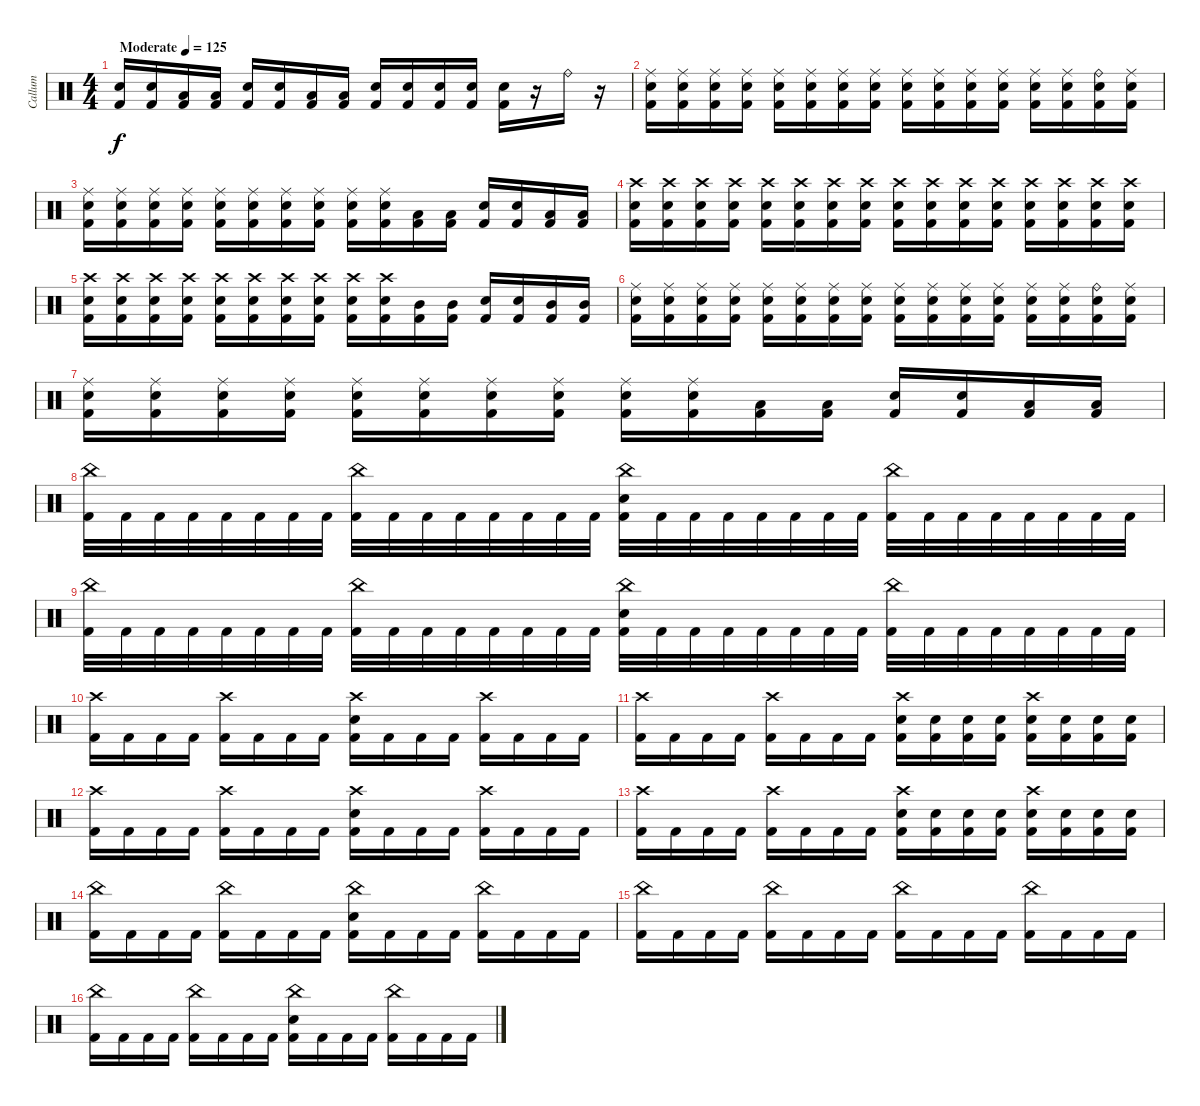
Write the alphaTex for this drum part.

\track ("Callum" "Callum") {instrument percussion}
\staff {score}
\articulation defaults
\ts (4 4)
\tempo (125 "Moderate")
\clef neutral
\ks c
("Electric Snare (hit)" "Kick (hit) 2").16{dy f} ("Electric Snare (hit)" "Kick (hit) 2").16 ("Low Tom (hit)" "Kick (hit) 2").16 ("Low Tom (hit)" "Kick (hit) 2").16 ("Electric Snare (hit)" "Kick (hit) 2").16 ("Electric Snare (hit)" "Kick (hit) 2").16 ("Low Tom (hit)" "Kick (hit) 2").16 ("Low Tom (hit)" "Kick (hit) 2").16 ("Electric Snare (hit)" "Kick (hit) 2").16 ("Electric Snare (hit)" "Kick (hit) 2").16 ("Electric Snare (hit)" "Kick (hit) 2").16 ("Electric Snare (hit)" "Kick (hit) 2").16 ("Electric Snare (hit)" "Kick (hit) 2").16 r.16 "Ride (bell)".16 r.16 |
("Ride (middle)" "Electric Snare (hit)" "Kick (hit) 2").16 ("Ride (middle)" "Electric Snare (hit)" "Kick (hit) 2").16 ("Ride (middle)" "Electric Snare (hit)" "Kick (hit) 2").16 ("Ride (middle)" "Electric Snare (hit)" "Kick (hit) 2").16 ("Ride (middle)" "Electric Snare (hit)" "Kick (hit) 2").16 ("Ride (middle)" "Electric Snare (hit)" "Kick (hit) 2").16 ("Ride (middle)" "Electric Snare (hit)" "Kick (hit) 2").16 ("Ride (middle)" "Electric Snare (hit)" "Kick (hit) 2").16 ("Ride (middle)" "Electric Snare (hit)" "Kick (hit) 2").16 ("Ride (middle)" "Electric Snare (hit)" "Kick (hit) 2").16 ("Ride (middle)" "Electric Snare (hit)" "Kick (hit) 2").16 ("Ride (middle)" "Electric Snare (hit)" "Kick (hit) 2").16 ("Ride (middle)" "Electric Snare (hit)" "Kick (hit) 2").16 ("Ride (middle)" "Electric Snare (hit)" "Kick (hit) 2").16 ("Ride (bell)" "Electric Snare (hit)" "Kick (hit) 2").16 ("Ride (middle)" "Electric Snare (hit)" "Kick (hit) 2").16 |
("Ride (middle)" "Electric Snare (hit)" "Kick (hit) 2").16 ("Ride (middle)" "Electric Snare (hit)" "Kick (hit) 2").16 ("Ride (middle)" "Electric Snare (hit)" "Kick (hit) 2").16 ("Ride (middle)" "Electric Snare (hit)" "Kick (hit) 2").16 ("Ride (middle)" "Electric Snare (hit)" "Kick (hit) 2").16 ("Ride (middle)" "Electric Snare (hit)" "Kick (hit) 2").16 ("Ride (middle)" "Electric Snare (hit)" "Kick (hit) 2").16 ("Ride (middle)" "Electric Snare (hit)" "Kick (hit) 2").16 ("Ride (middle)" "Electric Snare (hit)" "Kick (hit) 2").16 ("Ride (middle)" "Electric Snare (hit)" "Kick (hit) 2").16 ("Low Tom (hit)" "Kick (hit) 2").16 ("Low Tom (hit)" "Kick (hit) 2").16 ("Electric Snare (hit)" "Kick (hit) 2").16 ("Electric Snare (hit)" "Kick (hit) 2").16 ("Low Tom (hit)" "Kick (hit) 2").16 ("Low Tom (hit)" "Kick (hit) 2").16 |
("Crash high (hit)" "Electric Snare (hit)" "Kick (hit) 2").16 ("Crash high (hit)" "Electric Snare (hit)" "Kick (hit) 2").16 ("Crash high (hit)" "Electric Snare (hit)" "Kick (hit) 2").16 ("Crash high (hit)" "Electric Snare (hit)" "Kick (hit) 2").16 ("Crash high (hit)" "Electric Snare (hit)" "Kick (hit) 2").16 ("Crash high (hit)" "Electric Snare (hit)" "Kick (hit) 2").16 ("Crash high (hit)" "Electric Snare (hit)" "Kick (hit) 2").16 ("Crash high (hit)" "Electric Snare (hit)" "Kick (hit) 2").16 ("Crash high (hit)" "Electric Snare (hit)" "Kick (hit) 2").16 ("Crash high (hit)" "Electric Snare (hit)" "Kick (hit) 2").16 ("Crash high (hit)" "Electric Snare (hit)" "Kick (hit) 2").16 ("Crash high (hit)" "Electric Snare (hit)" "Kick (hit) 2").16 ("Crash high (hit)" "Electric Snare (hit)" "Kick (hit) 2").16 ("Crash high (hit)" "Electric Snare (hit)" "Kick (hit) 2").16 ("Crash high (hit)" "Electric Snare (hit)" "Kick (hit) 2").16 ("Crash high (hit)" "Electric Snare (hit)" "Kick (hit) 2").16 |
("Crash high (hit)" "Electric Snare (hit)" "Kick (hit) 2").16 ("Crash high (hit)" "Electric Snare (hit)" "Kick (hit) 2").16 ("Crash high (hit)" "Electric Snare (hit)" "Kick (hit) 2").16 ("Crash high (hit)" "Electric Snare (hit)" "Kick (hit) 2").16 ("Crash high (hit)" "Electric Snare (hit)" "Kick (hit) 2").16 ("Crash high (hit)" "Electric Snare (hit)" "Kick (hit) 2").16 ("Crash high (hit)" "Electric Snare (hit)" "Kick (hit) 2").16 ("Crash high (hit)" "Electric Snare (hit)" "Kick (hit) 2").16 ("Crash high (hit)" "Electric Snare (hit)" "Kick (hit) 2").16 ("Crash high (hit)" "Electric Snare (hit)" "Kick (hit) 2").16 ("Mid Tom (hit)" "Kick (hit) 2").16 ("Mid Tom (hit)" "Kick (hit) 2").16 ("Electric Snare (hit)" "Kick (hit) 2").16 ("Electric Snare (hit)" "Kick (hit) 2").16 ("Mid Tom (hit)" "Kick (hit) 2").16 ("Mid Tom (hit)" "Kick (hit) 2").16 |
("Ride (middle)" "Electric Snare (hit)" "Kick (hit) 2").16 ("Ride (middle)" "Electric Snare (hit)" "Kick (hit) 2").16 ("Ride (middle)" "Electric Snare (hit)" "Kick (hit) 2").16 ("Ride (middle)" "Electric Snare (hit)" "Kick (hit) 2").16 ("Ride (middle)" "Electric Snare (hit)" "Kick (hit) 2").16 ("Ride (middle)" "Electric Snare (hit)" "Kick (hit) 2").16 ("Ride (middle)" "Electric Snare (hit)" "Kick (hit) 2").16 ("Ride (middle)" "Electric Snare (hit)" "Kick (hit) 2").16 ("Ride (middle)" "Electric Snare (hit)" "Kick (hit) 2").16 ("Ride (middle)" "Electric Snare (hit)" "Kick (hit) 2").16 ("Ride (middle)" "Electric Snare (hit)" "Kick (hit) 2").16 ("Ride (middle)" "Electric Snare (hit)" "Kick (hit) 2").16 ("Ride (middle)" "Electric Snare (hit)" "Kick (hit) 2").16 ("Ride (middle)" "Electric Snare (hit)" "Kick (hit) 2").16 ("Ride (bell)" "Electric Snare (hit)" "Kick (hit) 2").16 ("Ride (middle)" "Electric Snare (hit)" "Kick (hit) 2").16 |
("Ride (middle)" "Electric Snare (hit)" "Kick (hit) 2").16 ("Ride (middle)" "Electric Snare (hit)" "Kick (hit) 2").16 ("Ride (middle)" "Electric Snare (hit)" "Kick (hit) 2").16 ("Ride (middle)" "Electric Snare (hit)" "Kick (hit) 2").16 ("Ride (middle)" "Electric Snare (hit)" "Kick (hit) 2").16 ("Ride (middle)" "Electric Snare (hit)" "Kick (hit) 2").16 ("Ride (middle)" "Electric Snare (hit)" "Kick (hit) 2").16 ("Ride (middle)" "Electric Snare (hit)" "Kick (hit) 2").16 ("Ride (middle)" "Electric Snare (hit)" "Kick (hit) 2").16 ("Ride (middle)" "Electric Snare (hit)" "Kick (hit) 2").16 ("Low Tom (hit)" "Kick (hit) 2").16 ("Low Tom (hit)" "Kick (hit) 2").16 ("Electric Snare (hit)" "Kick (hit) 2").16 ("Electric Snare (hit)" "Kick (hit) 2").16 ("Low Tom (hit)" "Kick (hit) 2").16 ("Low Tom (hit)" "Kick (hit) 2").16 |
("China (hit)" "Kick (hit) 2").32 "Kick (hit) 2".32 "Kick (hit) 2".32 "Kick (hit) 2".32 "Kick (hit) 2".32 "Kick (hit) 2".32 "Kick (hit) 2".32 "Kick (hit) 2".32 ("China (hit)" "Kick (hit) 2").32 "Kick (hit) 2".32 "Kick (hit) 2".32 "Kick (hit) 2".32 "Kick (hit) 2".32 "Kick (hit) 2".32 "Kick (hit) 2".32 "Kick (hit) 2".32 ("China (hit)" "Electric Snare (hit)" "Kick (hit) 2").32 "Kick (hit) 2".32 "Kick (hit) 2".32 "Kick (hit) 2".32 "Kick (hit) 2".32 "Kick (hit) 2".32 "Kick (hit) 2".32 "Kick (hit) 2".32 ("China (hit)" "Kick (hit) 2").32 "Kick (hit) 2".32 "Kick (hit) 2".32 "Kick (hit) 2".32 "Kick (hit) 2".32 "Kick (hit) 2".32 "Kick (hit) 2".32 "Kick (hit) 2".32 |
("China (hit)" "Kick (hit) 2").32 "Kick (hit) 2".32 "Kick (hit) 2".32 "Kick (hit) 2".32 "Kick (hit) 2".32 "Kick (hit) 2".32 "Kick (hit) 2".32 "Kick (hit) 2".32 ("China (hit)" "Kick (hit) 2").32 "Kick (hit) 2".32 "Kick (hit) 2".32 "Kick (hit) 2".32 "Kick (hit) 2".32 "Kick (hit) 2".32 "Kick (hit) 2".32 "Kick (hit) 2".32 ("China (hit)" "Electric Snare (hit)" "Kick (hit) 2").32 "Kick (hit) 2".32 "Kick (hit) 2".32 "Kick (hit) 2".32 "Kick (hit) 2".32 "Kick (hit) 2".32 "Kick (hit) 2".32 "Kick (hit) 2".32 ("China (hit)" "Kick (hit) 2").32 "Kick (hit) 2".32 "Kick (hit) 2".32 "Kick (hit) 2".32 "Kick (hit) 2".32 "Kick (hit) 2".32 "Kick (hit) 2".32 "Kick (hit) 2".32 |
("Crash high (hit)" "Kick (hit) 2").16 "Kick (hit) 2".16 "Kick (hit) 2".16 "Kick (hit) 2".16 ("Crash high (hit)" "Kick (hit) 2").16 "Kick (hit) 2".16 "Kick (hit) 2".16 "Kick (hit) 2".16 ("Crash high (hit)" "Electric Snare (hit)" "Kick (hit) 2").16 "Kick (hit) 2".16 "Kick (hit) 2".16 "Kick (hit) 2".16 ("Crash high (hit)" "Kick (hit) 2").16 "Kick (hit) 2".16 "Kick (hit) 2".16 "Kick (hit) 2".16 |
("Crash high (hit)" "Kick (hit) 2").16 "Kick (hit) 2".16 "Kick (hit) 2".16 "Kick (hit) 2".16 ("Crash high (hit)" "Kick (hit) 2").16 "Kick (hit) 2".16 "Kick (hit) 2".16 "Kick (hit) 2".16 ("Crash high (hit)" "Electric Snare (hit)" "Kick (hit) 2").16 ("Electric Snare (hit)" "Kick (hit) 2").16 ("Electric Snare (hit)" "Kick (hit) 2").16 ("Electric Snare (hit)" "Kick (hit) 2").16 ("Crash high (hit)" "Electric Snare (hit)" "Kick (hit) 2").16 ("Electric Snare (hit)" "Kick (hit) 2").16 ("Electric Snare (hit)" "Kick (hit) 2").16 ("Electric Snare (hit)" "Kick (hit) 2").16 |
("Crash high (hit)" "Kick (hit) 2").16 "Kick (hit) 2".16 "Kick (hit) 2".16 "Kick (hit) 2".16 ("Crash high (hit)" "Kick (hit) 2").16 "Kick (hit) 2".16 "Kick (hit) 2".16 "Kick (hit) 2".16 ("Crash high (hit)" "Electric Snare (hit)" "Kick (hit) 2").16 "Kick (hit) 2".16 "Kick (hit) 2".16 "Kick (hit) 2".16 ("Crash high (hit)" "Kick (hit) 2").16 "Kick (hit) 2".16 "Kick (hit) 2".16 "Kick (hit) 2".16 |
("Crash high (hit)" "Kick (hit) 2").16 "Kick (hit) 2".16 "Kick (hit) 2".16 "Kick (hit) 2".16 ("Crash high (hit)" "Kick (hit) 2").16 "Kick (hit) 2".16 "Kick (hit) 2".16 "Kick (hit) 2".16 ("Crash high (hit)" "Electric Snare (hit)" "Kick (hit) 2").16 ("Electric Snare (hit)" "Kick (hit) 2").16 ("Electric Snare (hit)" "Kick (hit) 2").16 ("Electric Snare (hit)" "Kick (hit) 2").16 ("Crash high (hit)" "Electric Snare (hit)" "Kick (hit) 2").16 ("Electric Snare (hit)" "Kick (hit) 2").16 ("Electric Snare (hit)" "Kick (hit) 2").16 ("Electric Snare (hit)" "Kick (hit) 2").16 |
("China (hit)" "Kick (hit) 2").16 "Kick (hit) 2".16 "Kick (hit) 2".16 "Kick (hit) 2".16 ("China (hit)" "Kick (hit) 2").16 "Kick (hit) 2".16 "Kick (hit) 2".16 "Kick (hit) 2".16 ("China (hit)" "Electric Snare (hit)" "Kick (hit) 2").16 "Kick (hit) 2".16 "Kick (hit) 2".16 "Kick (hit) 2".16 ("China (hit)" "Kick (hit) 2").16 "Kick (hit) 2".16 "Kick (hit) 2".16 "Kick (hit) 2".16 |
("China (hit)" "Kick (hit) 2").16 "Kick (hit) 2".16 "Kick (hit) 2".16 "Kick (hit) 2".16 ("China (hit)" "Kick (hit) 2").16 "Kick (hit) 2".16 "Kick (hit) 2".16 "Kick (hit) 2".16 ("China (hit)" "Kick (hit) 2").16 "Kick (hit) 2".16 "Kick (hit) 2".16 "Kick (hit) 2".16 ("China (hit)" "Kick (hit) 2").16 "Kick (hit) 2".16 "Kick (hit) 2".16 "Kick (hit) 2".16 |
("China (hit)" "Kick (hit) 2").16 "Kick (hit) 2".16 "Kick (hit) 2".16 "Kick (hit) 2".16 ("China (hit)" "Kick (hit) 2").16 "Kick (hit) 2".16 "Kick (hit) 2".16 "Kick (hit) 2".16 ("China (hit)" "Electric Snare (hit)" "Kick (hit) 2").16 "Kick (hit) 2".16 "Kick (hit) 2".16 "Kick (hit) 2".16 ("China (hit)" "Kick (hit) 2").16 "Kick (hit) 2".16 "Kick (hit) 2".16 "Kick (hit) 2".16
